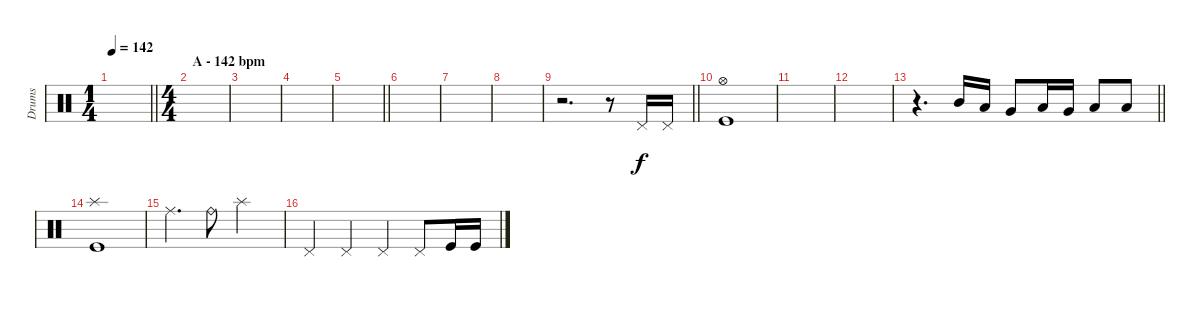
\track ("Drums" "Drums") {instrument percussion}
\staff
\articulation defaults
\ts (1 4)
\tempo 142
\clef neutral
\barLineRight lightlight
\ks c
|
\ts (4 4)
\section ("" "A - 142 bpm")
|
|
|
\barLineRight lightlight
|
|
|
|
\barLineRight lightlight
r.2{d} r.8 "Pedal Hi-Hat (hit)".16 "Pedal Hi-Hat (hit)".16 |
("Hi-Hat (open)" "Kick (hit)").1 |
|
|
\barLineRight lightlight
r.4{d} "Mid Tom (hit)".16 "Low Tom (hit)".16 "Very Low Tom (hit)".8 "Low Tom (hit)".16 "Very Low Tom (hit)".16 "Low Floor Tom (hit)".8 "Low Floor Tom (hit)".8 |
("Splash (hit)" "Kick (hit)").1 |
"Ride (middle)".4{d} "Ride (bell)".8 "Splash (hit)".2 |
"Pedal Hi-Hat (hit)".4 "Pedal Hi-Hat (hit)".4 "Pedal Hi-Hat (hit)".4 "Pedal Hi-Hat (hit)".8 "Kick (hit)".16 "Kick (hit)".16
